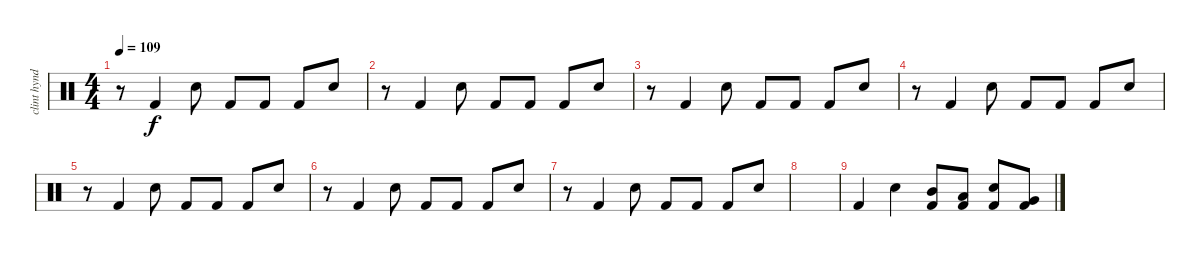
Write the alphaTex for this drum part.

\track ("clint hyndman" "clint hynd") {instrument percussion}
\staff {score}
\articulation defaults
\ts (4 4)
\tempo 109
\clef neutral
\ks c
r.8{dy f} "Kick (hit) 2".4 "Electric Snare (hit)".8 "Kick (hit) 2".8 "Kick (hit) 2".8 "Kick (hit) 2".8 "Electric Snare (hit)".8 |
r.8 "Kick (hit) 2".4 "Electric Snare (hit)".8 "Kick (hit) 2".8 "Kick (hit) 2".8 "Kick (hit) 2".8 "Electric Snare (hit)".8 |
r.8 "Kick (hit) 2".4 "Electric Snare (hit)".8 "Kick (hit) 2".8 "Kick (hit) 2".8 "Kick (hit) 2".8 "Electric Snare (hit)".8 |
r.8 "Kick (hit) 2".4 "Electric Snare (hit)".8 "Kick (hit) 2".8 "Kick (hit) 2".8 "Kick (hit) 2".8 "Electric Snare (hit)".8 |
r.8 "Kick (hit) 2".4 "Electric Snare (hit)".8 "Kick (hit) 2".8 "Kick (hit) 2".8 "Kick (hit) 2".8 "Electric Snare (hit)".8 |
r.8 "Kick (hit) 2".4 "Electric Snare (hit)".8 "Kick (hit) 2".8 "Kick (hit) 2".8 "Kick (hit) 2".8 "Electric Snare (hit)".8 |
r.8 "Kick (hit) 2".4 "Electric Snare (hit)".8 "Kick (hit) 2".8 "Kick (hit) 2".8 "Kick (hit) 2".8 "Electric Snare (hit)".8 |
|
"Kick (hit) 2".4 "Electric Snare (hit)".4 ("Mid Tom (hit)" "Kick (hit) 2").8 ("Low Tom (hit)" "Kick (hit) 2").8 ("Electric Snare (hit)" "Kick (hit) 2").8 ("Very Low Tom (hit)" "Kick (hit) 2").8
